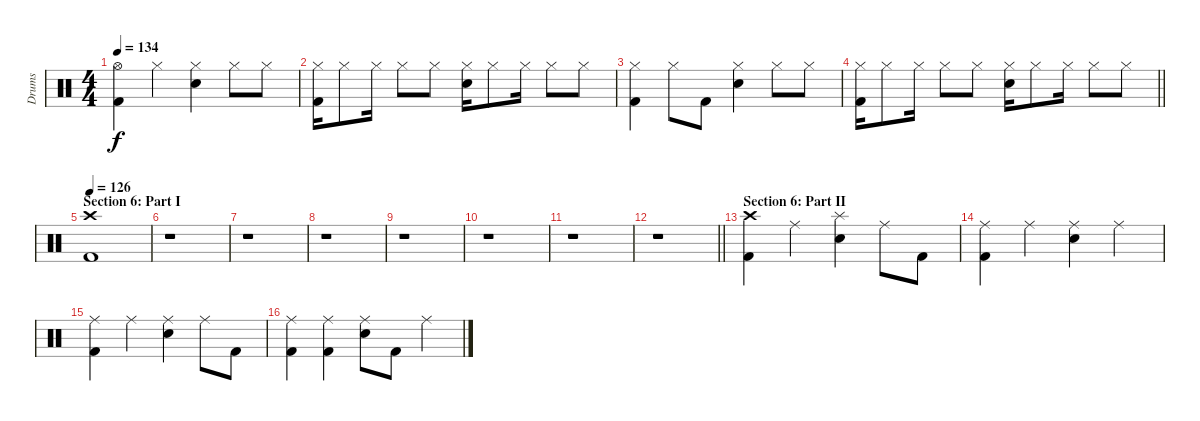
\track ("Drums" "Drums") {instrument percussion}
\staff {score}
\articulation defaults
\ts (4 4)
\tempo 134
\clef neutral
\ks c
("Hi-Hat (open)" "Kick (hit) 2").4{dy f} "Hi-Hat (closed)".4 ("Hi-Hat (closed)" "Electric Snare (hit)").4 "Hi-Hat (closed)".8 "Hi-Hat (closed)".8 |
("Hi-Hat (closed)" "Kick (hit) 2").16 "Hi-Hat (closed)".8 "Hi-Hat (closed)".16 "Hi-Hat (closed)".8 "Hi-Hat (closed)".8 ("Hi-Hat (closed)" "Electric Snare (hit)").16 "Hi-Hat (closed)".8 "Hi-Hat (closed)".16 "Hi-Hat (closed)".8 "Hi-Hat (closed)".8 |
("Hi-Hat (closed)" "Kick (hit) 2").4 "Hi-Hat (closed)".8 "Kick (hit) 2".8 ("Hi-Hat (closed)" "Electric Snare (hit)").4 "Hi-Hat (closed)".8 "Hi-Hat (closed)".8 |
\barLineRight lightlight
("Hi-Hat (closed)" "Kick (hit) 2").16 "Hi-Hat (closed)".8 "Hi-Hat (closed)".16 "Hi-Hat (closed)".8 "Hi-Hat (closed)".8 ("Hi-Hat (closed)" "Electric Snare (hit)").16 "Hi-Hat (closed)".8 "Hi-Hat (closed)".16 "Hi-Hat (closed)".8 "Hi-Hat (closed)".8 |
\section ("" "Section 6: Part I")
\tempo 126
("Crash high (hit)" "Kick (hit) 2").1 |
r.1 |
r.1 |
r.1 |
r.1 |
r.1 |
r.1 |
\barLineRight lightlight
r.1 |
\section ("" "Section 6: Part II")
("Crash high (hit)" "Kick (hit) 2").4 "Ride (middle)".4 ("Splash (hit)" "Electric Snare (hit)").4 "Ride (middle)".8 "Kick (hit) 2".8 |
("Ride (middle)" "Kick (hit) 2").4 "Ride (middle)".4 ("Ride (middle)" "Electric Snare (hit)").4 "Ride (middle)".4 |
("Ride (middle)" "Kick (hit) 2").4 "Ride (middle)".4 ("Ride (middle)" "Electric Snare (hit)").4 "Ride (middle)".8 "Kick (hit) 2".8 |
("Ride (middle)" "Kick (hit) 2").4 ("Ride (middle)" "Kick (hit) 2").4 ("Ride (middle)" "Electric Snare (hit)").8 "Kick (hit) 2".8 "Ride (middle)".4
